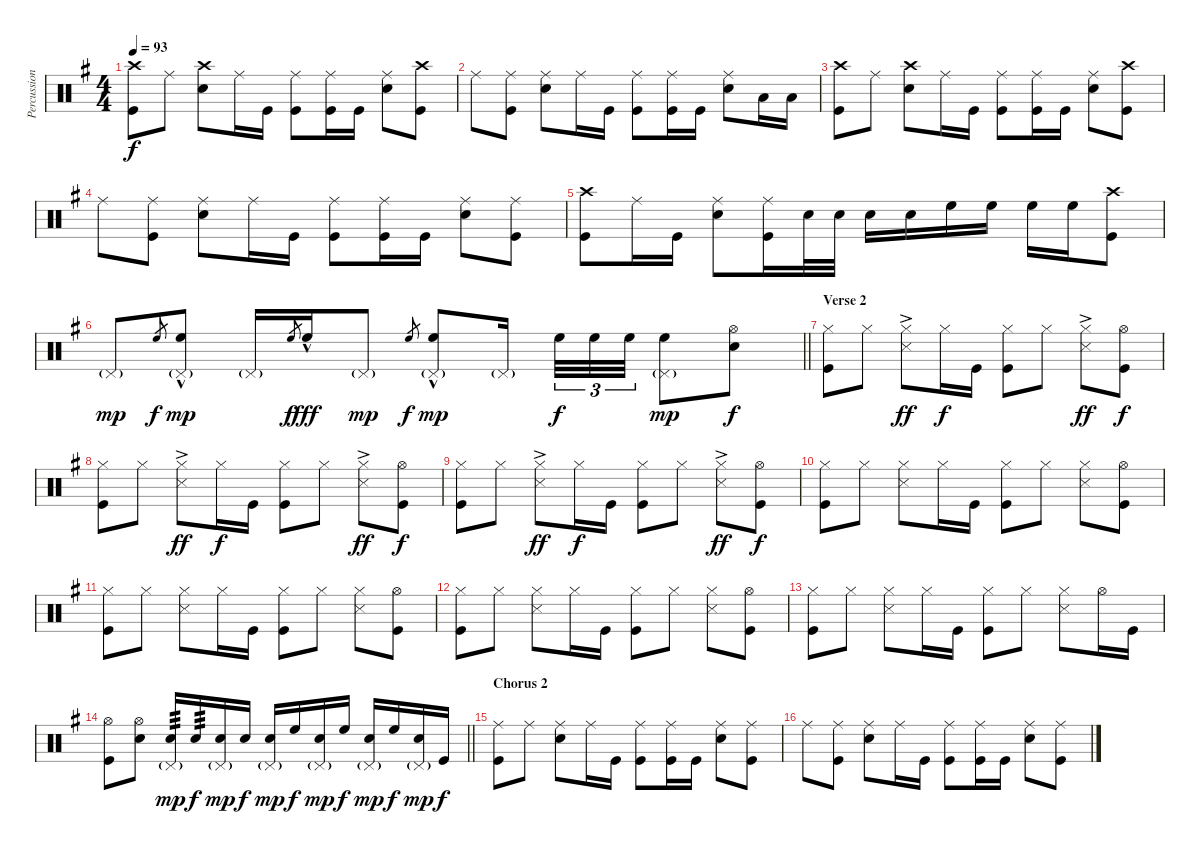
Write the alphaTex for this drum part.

\track ("Percussion" "Percussion") {instrument percussion}
\staff {score}
\articulation defaults
\ts (4 4)
\tempo 93
\clef neutral
\ks g
("Crash high (hit)" "Kick (hit)").8{dy f} "Ride (middle)".8 ("Crash high (hit)" "Snare (hit) 2").8 "Ride (middle)".16 "Kick (hit)".16 ("Ride (middle)" "Kick (hit)").8 ("Ride (middle)" "Kick (hit)").16 "Kick (hit)".16 ("Ride (middle)" "Snare (hit) 2").8 ("Crash high (hit)" "Kick (hit)").8 |
"Ride (middle)".8 ("Ride (middle)" "Kick (hit)").8 ("Ride (middle)" "Snare (hit) 2").8 "Ride (middle)".16 "Kick (hit)".16 ("Ride (middle)" "Kick (hit)").8 ("Ride (middle)" "Kick (hit)").16 "Kick (hit)".16 ("Ride (middle)" "Snare (hit) 2").8 "Low Floor Tom (hit)".16 "Low Floor Tom (hit)".16 |
("Crash high (hit)" "Kick (hit)").8 "Ride (middle)".8 ("Crash high (hit)" "Snare (hit) 2").8 "Ride (middle)".16 "Kick (hit)".16 ("Ride (middle)" "Kick (hit)").8 ("Ride (middle)" "Kick (hit)").16 "Kick (hit)".16 ("Ride (middle)" "Snare (hit) 2").8 ("Crash high (hit)" "Kick (hit)").8 |
"Ride (middle)".8 ("Ride (middle)" "Kick (hit)").8 ("Ride (middle)" "Snare (hit) 2").8 "Ride (middle)".16 "Kick (hit)".16 ("Ride (middle)" "Kick (hit)").8 ("Ride (middle)" "Kick (hit)").16 "Kick (hit)".16 ("Ride (middle)" "Snare (hit) 2").8 ("Ride (middle)" "Kick (hit)").8 |
("Crash high (hit)" "Kick (hit)").8 "Ride (middle)".16 "Kick (hit)".16 ("Ride (middle)" "Snare (hit) 2").8 ("Ride (middle)" "Kick (hit)").16 "Snare (hit) 2".32 "Snare (hit) 2".32 "Snare (hit) 2".16 "Snare (hit) 2".16 "High Floor Tom (hit)".16 "High Floor Tom (hit)".16 "High Floor Tom (hit)".16 "High Floor Tom (hit)".16 ("Crash high (hit)" "Kick (hit)").8 |
\barLineRight lightlight "Pedal Hi-Hat (hit)"{g}.8{dy mp} "High Floor Tom (hit)".8{gr dy f}
("High Floor Tom (hit)"{hac} "Pedal Hi-Hat (hit)"{g}).8{dy mp} "Pedal Hi-Hat (hit)"{g}.16 "High Floor Tom (hit)".8{gr dy f} "High Floor Tom (hit)"{hac}.16{dy fff} "Pedal Hi-Hat (hit)"{g}.8{dy mp} "High Floor Tom (hit)".8{gr dy f} ("High Floor Tom (hit)"{hac} "Pedal Hi-Hat (hit)"{g}).8{dy mp} "Pedal Hi-Hat (hit)"{g}.16{beam splitsecondary} "High Floor Tom (hit)".32{tu (3 2) dy f} "High Floor Tom (hit)".32{tu (3 2)} "High Floor Tom (hit)".32{tu (3 2)} ("High Floor Tom (hit)" "Pedal Hi-Hat (hit)"{g}).8{dy mp} ("Hi-Hat (open)" "Snare (hit) 2").8{dy f} |
\section ("" "Verse 2")
("Hi-Hat (closed)" "Kick (hit)").8 "Hi-Hat (closed)".8 ("Hi-Hat (closed)" "Snare (side stick) 3"{ac}).8{dy ff} "Hi-Hat (closed)".16{dy f} "Kick (hit)".16 ("Hi-Hat (closed)" "Kick (hit)").8 "Hi-Hat (closed)".8 ("Hi-Hat (closed)" "Snare (side stick) 3"{ac}).8{dy ff} ("Hi-Hat (open)" "Kick (hit)").8{dy f} |
("Hi-Hat (closed)" "Kick (hit)").8 "Hi-Hat (closed)".8 ("Hi-Hat (closed)" "Snare (side stick) 3"{ac}).8{dy ff} "Hi-Hat (closed)".16{dy f} "Kick (hit)".16 ("Hi-Hat (closed)" "Kick (hit)").8 "Hi-Hat (closed)".8 ("Hi-Hat (closed)" "Snare (side stick) 3"{ac}).8{dy ff} ("Hi-Hat (open)" "Kick (hit)").8{dy f} |
("Hi-Hat (closed)" "Kick (hit)").8 "Hi-Hat (closed)".8 ("Hi-Hat (closed)" "Snare (side stick) 3"{ac}).8{dy ff} "Hi-Hat (closed)".16{dy f} "Kick (hit)".16 ("Hi-Hat (closed)" "Kick (hit)").8 "Hi-Hat (closed)".8 ("Hi-Hat (closed)" "Snare (side stick) 3"{ac}).8{dy ff} ("Hi-Hat (open)" "Kick (hit)").8{dy f} |
("Hi-Hat (closed)" "Kick (hit)").8 "Hi-Hat (closed)".8 ("Hi-Hat (closed)" "Snare (side stick) 3").8 "Hi-Hat (closed)".16 "Kick (hit)".16 ("Hi-Hat (closed)" "Kick (hit)").8 "Hi-Hat (closed)".8 ("Hi-Hat (closed)" "Snare (side stick) 3").8 ("Hi-Hat (open)" "Kick (hit)").8 |
("Hi-Hat (closed)" "Kick (hit)").8 "Hi-Hat (closed)".8 ("Hi-Hat (closed)" "Snare (side stick) 3").8 "Hi-Hat (closed)".16 "Kick (hit)".16 ("Hi-Hat (closed)" "Kick (hit)").8 "Hi-Hat (closed)".8 ("Hi-Hat (closed)" "Snare (side stick) 3").8 ("Hi-Hat (open)" "Kick (hit)").8 |
("Hi-Hat (closed)" "Kick (hit)").8 "Hi-Hat (closed)".8 ("Hi-Hat (closed)" "Snare (side stick) 3").8 "Hi-Hat (closed)".16 "Kick (hit)".16 ("Hi-Hat (closed)" "Kick (hit)").8 "Hi-Hat (closed)".8 ("Hi-Hat (closed)" "Snare (side stick) 3").8 ("Hi-Hat (open)" "Kick (hit)").8 |
("Hi-Hat (closed)" "Kick (hit)").8 "Hi-Hat (closed)".8 ("Hi-Hat (closed)" "Snare (side stick) 3").8 "Hi-Hat (closed)".16 "Kick (hit)".16 ("Hi-Hat (closed)" "Kick (hit)").8 "Hi-Hat (closed)".8 ("Hi-Hat (closed)" "Snare (side stick) 3").8 "Hi-Hat (open)".16 "Kick (hit)".16 |
\barLineRight lightlight
("Hi-Hat (open)" "Kick (hit)").8 ("Hi-Hat (open)" "Snare (hit) 2").8 ("Snare (hit) 2" "Pedal Hi-Hat (hit)"{g}).16{tp 3 dy mp} "Snare (hit) 2".16{tp 3 dy f} ("Snare (hit) 2" "Pedal Hi-Hat (hit)"{g}).16{dy mp} "Snare (hit) 2".16{dy f} ("Snare (hit) 2" "Pedal Hi-Hat (hit)"{g}).16{dy mp} "High Floor Tom (hit)".16{dy f} ("Snare (hit) 2" "Pedal Hi-Hat (hit)"{g}).16{dy mp} "High Floor Tom (hit)".16{dy f} ("Snare (hit) 2" "Pedal Hi-Hat (hit)"{g}).16{dy mp} "High Floor Tom (hit)".16{dy f} ("Snare (hit) 2" "Pedal Hi-Hat (hit)"{g}).16{dy mp} "Kick (hit)".16{dy f} |
\section ("" "Chorus 2")
("Ride (middle)" "Kick (hit)").8 "Ride (middle)".8 ("Ride (middle)" "Snare (hit) 2").8 "Ride (middle)".16 "Kick (hit)".16 ("Ride (middle)" "Kick (hit)").8 ("Ride (middle)" "Kick (hit)").16 "Kick (hit)".16 ("Ride (middle)" "Snare (hit) 2").8 ("Ride (middle)" "Kick (hit)").8 |
"Ride (middle)".8 ("Ride (middle)" "Kick (hit)").8 ("Ride (middle)" "Snare (hit) 2").8 "Ride (middle)".16 "Kick (hit)".16 ("Ride (middle)" "Kick (hit)").8 ("Ride (middle)" "Kick (hit)").16 "Kick (hit)".16 ("Ride (middle)" "Snare (hit) 2").8 ("Ride (middle)" "Kick (hit)").8
